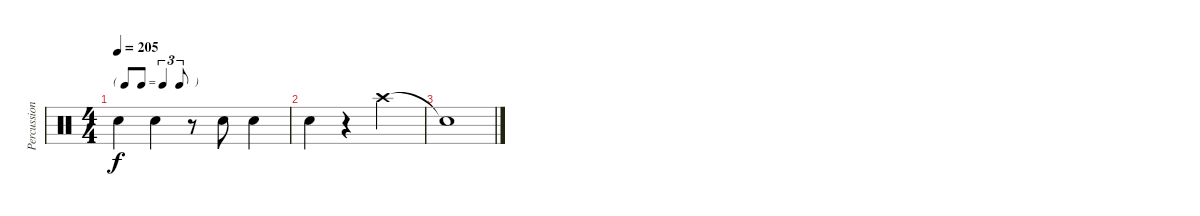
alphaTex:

\track ("Percussion" "Percussion") {instrument percussion}
\staff {score}
\articulation defaults
\ts (4 4)
\tf triplet8th
\tempo 205
\clef neutral
\ks c "Snare (hit) 2".4{dy f} "Snare (hit) 2".4
r.8 "Snare (hit) 2".8 "Snare (hit) 2".4 |
"Snare (hit) 2".4 r.4 "Crash high (hit)".2 |
"Snare (hit)"{t}.1
